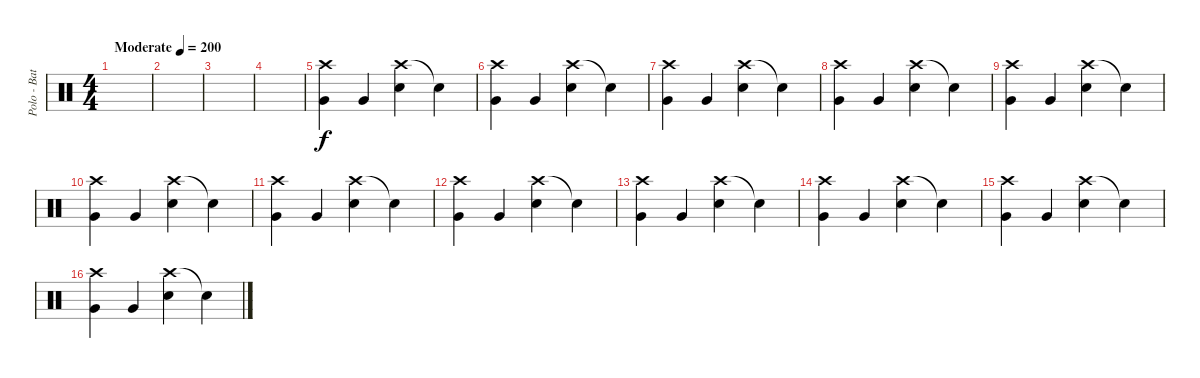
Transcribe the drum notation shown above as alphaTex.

\track ("Polo - Batería" "Polo - Bat") {instrument percussion}
\staff {score}
\articulation defaults
\ts (4 4)
\tempo (200 "Moderate")
\clef neutral
\ks c
|
|
|
|
("Crash high (hit)" "Very Low Tom (hit)").4 "Very Low Tom (hit)".4 ("Crash high (hit)" "Electric Snare (hit)").4 "Snare (hit)"{t}.4 |
("Crash high (hit)" "Very Low Tom (hit)").4 "Very Low Tom (hit)".4 ("Crash high (hit)" "Electric Snare (hit)").4 "Snare (hit)"{t}.4 |
("Crash high (hit)" "Very Low Tom (hit)").4 "Very Low Tom (hit)".4 ("Crash high (hit)" "Electric Snare (hit)").4 "Snare (hit)"{t}.4 |
("Crash high (hit)" "Very Low Tom (hit)").4 "Very Low Tom (hit)".4 ("Crash high (hit)" "Electric Snare (hit)").4 "Snare (hit)"{t}.4 |
("Crash high (hit)" "Very Low Tom (hit)").4 "Very Low Tom (hit)".4 ("Crash high (hit)" "Electric Snare (hit)").4 "Snare (hit)"{t}.4 |
("Crash high (hit)" "Very Low Tom (hit)").4 "Very Low Tom (hit)".4 ("Crash high (hit)" "Electric Snare (hit)").4 "Snare (hit)"{t}.4 |
("Crash high (hit)" "Very Low Tom (hit)").4 "Very Low Tom (hit)".4 ("Crash high (hit)" "Electric Snare (hit)").4 "Snare (hit)"{t}.4 |
("Crash high (hit)" "Very Low Tom (hit)").4 "Very Low Tom (hit)".4 ("Crash high (hit)" "Electric Snare (hit)").4 "Snare (hit)"{t}.4 |
("Crash high (hit)" "Very Low Tom (hit)").4 "Very Low Tom (hit)".4 ("Crash high (hit)" "Electric Snare (hit)").4 "Snare (hit)"{t}.4 |
("Crash high (hit)" "Very Low Tom (hit)").4 "Very Low Tom (hit)".4 ("Crash high (hit)" "Electric Snare (hit)").4 "Snare (hit)"{t}.4 |
("Crash high (hit)" "Very Low Tom (hit)").4 "Very Low Tom (hit)".4 ("Crash high (hit)" "Electric Snare (hit)").4 "Snare (hit)"{t}.4 |
("Crash high (hit)" "Very Low Tom (hit)").4 "Very Low Tom (hit)".4 ("Crash high (hit)" "Electric Snare (hit)").4 "Snare (hit)"{t}.4
